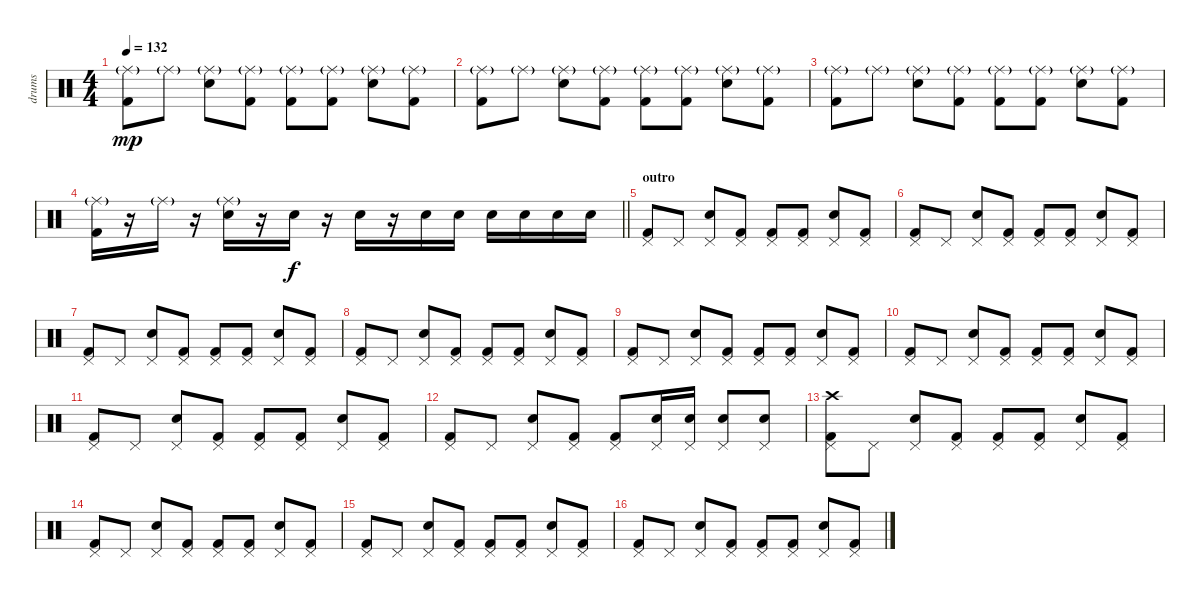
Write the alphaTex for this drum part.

\track ("drums" "drums") {instrument percussion}
\staff {score}
\articulation defaults
\ts (4 4)
\tempo 132
\clef neutral
\ks c
("Kick (hit) 2" "Ride (middle)"{g}).8{dy mp} "Ride (middle)"{g}.8 ("Electric Snare (hit)" "Ride (middle)"{g}).8 ("Kick (hit) 2" "Ride (middle)"{g}).8 ("Kick (hit) 2" "Ride (middle)"{g}).8 ("Kick (hit) 2" "Ride (middle)"{g}).8 ("Electric Snare (hit)" "Ride (middle)"{g}).8 ("Kick (hit) 2" "Ride (middle)"{g}).8 |
("Kick (hit) 2" "Ride (middle)"{g}).8 "Ride (middle)"{g}.8 ("Electric Snare (hit)" "Ride (middle)"{g}).8 ("Kick (hit) 2" "Ride (middle)"{g}).8 ("Kick (hit) 2" "Ride (middle)"{g}).8 ("Kick (hit) 2" "Ride (middle)"{g}).8 ("Electric Snare (hit)" "Ride (middle)"{g}).8 ("Kick (hit) 2" "Ride (middle)"{g}).8 |
("Kick (hit) 2" "Ride (middle)"{g}).8 "Ride (middle)"{g}.8 ("Electric Snare (hit)" "Ride (middle)"{g}).8 ("Kick (hit) 2" "Ride (middle)"{g}).8 ("Kick (hit) 2" "Ride (middle)"{g}).8 ("Kick (hit) 2" "Ride (middle)"{g}).8 ("Electric Snare (hit)" "Ride (middle)"{g}).8 ("Kick (hit) 2" "Ride (middle)"{g}).8 |
\barLineRight lightlight
("Kick (hit) 2" "Ride (middle)"{g}).16 r.16 "Ride (middle)"{g}.16 r.16 ("Electric Snare (hit)" "Ride (middle)"{g}).16 r.16 "Electric Snare (hit)".16{dy f} r.16 "Electric Snare (hit)".16 r.16 "Electric Snare (hit)".16 "Electric Snare (hit)".16 "Electric Snare (hit)".16 "Electric Snare (hit)".16 "Electric Snare (hit)".16 "Electric Snare (hit)".16 |
\section ("" "outro")
("Kick (hit) 2" "Pedal Hi-Hat (hit)").8 "Pedal Hi-Hat (hit)".8 ("Electric Snare (hit)" "Pedal Hi-Hat (hit)").8 ("Kick (hit) 2" "Pedal Hi-Hat (hit)").8 ("Kick (hit) 2" "Pedal Hi-Hat (hit)").8 ("Kick (hit) 2" "Pedal Hi-Hat (hit)").8 ("Electric Snare (hit)" "Pedal Hi-Hat (hit)").8 ("Kick (hit) 2" "Pedal Hi-Hat (hit)").8 |
("Kick (hit) 2" "Pedal Hi-Hat (hit)").8 "Pedal Hi-Hat (hit)".8 ("Electric Snare (hit)" "Pedal Hi-Hat (hit)").8 ("Kick (hit) 2" "Pedal Hi-Hat (hit)").8 ("Kick (hit) 2" "Pedal Hi-Hat (hit)").8 ("Kick (hit) 2" "Pedal Hi-Hat (hit)").8 ("Electric Snare (hit)" "Pedal Hi-Hat (hit)").8 ("Kick (hit) 2" "Pedal Hi-Hat (hit)").8 |
("Kick (hit) 2" "Pedal Hi-Hat (hit)").8 "Pedal Hi-Hat (hit)".8 ("Electric Snare (hit)" "Pedal Hi-Hat (hit)").8 ("Kick (hit) 2" "Pedal Hi-Hat (hit)").8 ("Kick (hit) 2" "Pedal Hi-Hat (hit)").8 ("Kick (hit) 2" "Pedal Hi-Hat (hit)").8 ("Electric Snare (hit)" "Pedal Hi-Hat (hit)").8 ("Kick (hit) 2" "Pedal Hi-Hat (hit)").8 |
("Kick (hit) 2" "Pedal Hi-Hat (hit)").8 "Pedal Hi-Hat (hit)".8 ("Electric Snare (hit)" "Pedal Hi-Hat (hit)").8 ("Kick (hit) 2" "Pedal Hi-Hat (hit)").8 ("Kick (hit) 2" "Pedal Hi-Hat (hit)").8 ("Kick (hit) 2" "Pedal Hi-Hat (hit)").8 ("Electric Snare (hit)" "Pedal Hi-Hat (hit)").8 ("Kick (hit) 2" "Pedal Hi-Hat (hit)").8 |
("Kick (hit) 2" "Pedal Hi-Hat (hit)").8 "Pedal Hi-Hat (hit)".8 ("Electric Snare (hit)" "Pedal Hi-Hat (hit)").8 ("Kick (hit) 2" "Pedal Hi-Hat (hit)").8 ("Kick (hit) 2" "Pedal Hi-Hat (hit)").8 ("Kick (hit) 2" "Pedal Hi-Hat (hit)").8 ("Electric Snare (hit)" "Pedal Hi-Hat (hit)").8 ("Kick (hit) 2" "Pedal Hi-Hat (hit)").8 |
("Kick (hit) 2" "Pedal Hi-Hat (hit)").8 "Pedal Hi-Hat (hit)".8 ("Electric Snare (hit)" "Pedal Hi-Hat (hit)").8 ("Kick (hit) 2" "Pedal Hi-Hat (hit)").8 ("Kick (hit) 2" "Pedal Hi-Hat (hit)").8 ("Kick (hit) 2" "Pedal Hi-Hat (hit)").8 ("Electric Snare (hit)" "Pedal Hi-Hat (hit)").8 ("Kick (hit) 2" "Pedal Hi-Hat (hit)").8 |
("Kick (hit) 2" "Pedal Hi-Hat (hit)").8 "Pedal Hi-Hat (hit)".8 ("Electric Snare (hit)" "Pedal Hi-Hat (hit)").8 ("Kick (hit) 2" "Pedal Hi-Hat (hit)").8 ("Kick (hit) 2" "Pedal Hi-Hat (hit)").8 ("Kick (hit) 2" "Pedal Hi-Hat (hit)").8 ("Electric Snare (hit)" "Pedal Hi-Hat (hit)").8 ("Kick (hit) 2" "Pedal Hi-Hat (hit)").8 |
("Kick (hit) 2" "Pedal Hi-Hat (hit)").8 "Pedal Hi-Hat (hit)".8 ("Electric Snare (hit)" "Pedal Hi-Hat (hit)").8 ("Kick (hit) 2" "Pedal Hi-Hat (hit)").8 ("Kick (hit) 2" "Pedal Hi-Hat (hit)").8 ("Electric Snare (hit)" "Pedal Hi-Hat (hit)").16 ("Electric Snare (hit)" "Pedal Hi-Hat (hit)").16 ("Electric Snare (hit)" "Pedal Hi-Hat (hit)").8 ("Electric Snare (hit)" "Pedal Hi-Hat (hit)").8 |
("Kick (hit) 2" "Pedal Hi-Hat (hit)" "Crash high (hit)").8 "Pedal Hi-Hat (hit)".8 ("Electric Snare (hit)" "Pedal Hi-Hat (hit)").8 ("Kick (hit) 2" "Pedal Hi-Hat (hit)").8 ("Kick (hit) 2" "Pedal Hi-Hat (hit)").8 ("Kick (hit) 2" "Pedal Hi-Hat (hit)").8 ("Electric Snare (hit)" "Pedal Hi-Hat (hit)").8 ("Kick (hit) 2" "Pedal Hi-Hat (hit)").8 |
("Kick (hit) 2" "Pedal Hi-Hat (hit)").8 "Pedal Hi-Hat (hit)".8 ("Electric Snare (hit)" "Pedal Hi-Hat (hit)").8 ("Kick (hit) 2" "Pedal Hi-Hat (hit)").8 ("Kick (hit) 2" "Pedal Hi-Hat (hit)").8 ("Kick (hit) 2" "Pedal Hi-Hat (hit)").8 ("Electric Snare (hit)" "Pedal Hi-Hat (hit)").8 ("Kick (hit) 2" "Pedal Hi-Hat (hit)").8 |
("Kick (hit) 2" "Pedal Hi-Hat (hit)").8 "Pedal Hi-Hat (hit)".8 ("Electric Snare (hit)" "Pedal Hi-Hat (hit)").8 ("Kick (hit) 2" "Pedal Hi-Hat (hit)").8 ("Kick (hit) 2" "Pedal Hi-Hat (hit)").8 ("Kick (hit) 2" "Pedal Hi-Hat (hit)").8 ("Electric Snare (hit)" "Pedal Hi-Hat (hit)").8 ("Kick (hit) 2" "Pedal Hi-Hat (hit)").8 |
("Kick (hit) 2" "Pedal Hi-Hat (hit)").8 "Pedal Hi-Hat (hit)".8 ("Electric Snare (hit)" "Pedal Hi-Hat (hit)").8 ("Kick (hit) 2" "Pedal Hi-Hat (hit)").8 ("Kick (hit) 2" "Pedal Hi-Hat (hit)").8 ("Kick (hit) 2" "Pedal Hi-Hat (hit)").8 ("Electric Snare (hit)" "Pedal Hi-Hat (hit)").8 ("Kick (hit) 2" "Pedal Hi-Hat (hit)").8
